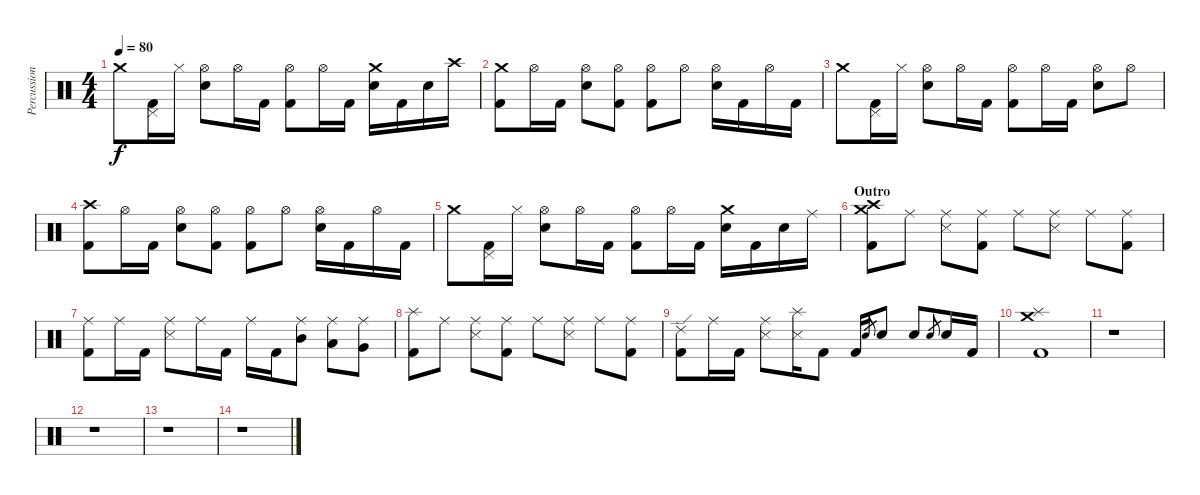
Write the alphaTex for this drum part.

\track ("Percussion" "Percussion") {instrument percussion}
\staff {score}
\articulation defaults
\ts (4 4)
\tempo 80
\clef neutral
\ks c "Crash medium (hit)".8{dy f}
("Pedal Hi-Hat (hit)" "Kick (hit) 2").16 "Hi-Hat (closed)".16 ("Hi-Hat (open)" "Electric Snare (hit)").8 "Hi-Hat (open)".16 "Kick (hit) 2".16 ("Hi-Hat (open)" "Kick (hit) 2").8 "Hi-Hat (open)".16 "Kick (hit) 2".16 ("Crash medium (hit)" "Electric Snare (hit)").16 "Kick (hit) 2".16 "Electric Snare (hit)".16 "Crash high (hit)".16 |
("Crash medium (hit)" "Kick (hit) 2").8 "Hi-Hat (open)".16 "Kick (hit) 2".16 ("Hi-Hat (open)" "Electric Snare (hit)").8 ("Hi-Hat (open)" "Kick (hit) 2").8 ("Hi-Hat (open)" "Kick (hit) 2").8 "Hi-Hat (open)".8 ("Hi-Hat (open)" "Electric Snare (hit)").16 "Kick (hit) 2".16 "Hi-Hat (open)".16 "Kick (hit) 2".16 |
"Crash medium (hit)".8 ("Pedal Hi-Hat (hit)" "Kick (hit) 2").16 "Hi-Hat (closed)".16 ("Hi-Hat (open)" "Electric Snare (hit)").8 "Hi-Hat (open)".16 "Kick (hit) 2".16 ("Hi-Hat (open)" "Kick (hit) 2").8 "Hi-Hat (open)".16 "Kick (hit) 2".16 ("Hi-Hat (open)" "Electric Snare (hit)").8 "Hi-Hat (open)".8 |
("Crash high (hit)" "Kick (hit) 2").8 "Hi-Hat (open)".16 "Kick (hit) 2".16 ("Hi-Hat (open)" "Electric Snare (hit)").8 ("Hi-Hat (open)" "Kick (hit) 2").8 ("Hi-Hat (open)" "Kick (hit) 2").8 "Hi-Hat (open)".8 ("Hi-Hat (open)" "Electric Snare (hit)").16 "Kick (hit) 2".16 "Hi-Hat (open)".16 "Kick (hit) 2".16 |
"Crash medium (hit)".8 ("Pedal Hi-Hat (hit)" "Kick (hit) 2").16 "Hi-Hat (closed)".16 ("Hi-Hat (open)" "Electric Snare (hit)").8 "Hi-Hat (open)".16 "Kick (hit) 2".16 ("Hi-Hat (open)" "Kick (hit) 2").8 "Hi-Hat (open)".16 "Kick (hit) 2".16 ("Crash medium (hit)" "Electric Snare (hit)").16 "Kick (hit) 2".16 "Electric Snare (hit)".16 "Ride (middle)".16 |
\section ("" "Outro")
("Crash medium (hit)" "Crash high (hit)" "Kick (hit) 2").8 "Ride (middle)".8 ("Ride (middle)" "Snare (side stick) 3").8 ("Ride (middle)" "Kick (hit) 2").8 "Ride (middle)".8 ("Ride (middle)" "Snare (side stick) 3").8 "Ride (middle)".8 ("Ride (middle)" "Kick (hit) 2").8 |
("Ride (middle)" "Kick (hit) 2").8 "Ride (middle)".16 "Kick (hit) 2".16 ("Ride (middle)" "Snare (side stick) 3").8 "Ride (middle)".16 "Kick (hit) 2".16 "Ride (middle)".16 "Kick (hit) 2".16 ("Ride (middle)" "Mid Tom (hit)").8 ("Ride (middle)" "Low Tom (hit)").8 ("Ride (middle)" "Very Low Tom (hit)").8 |
("Splash (hit)" "Kick (hit) 2").8 "Ride (middle)".8 ("Ride (middle)" "Snare (side stick) 3").8 ("Ride (middle)" "Kick (hit) 2").8 "Ride (middle)".8 ("Ride (middle)" "Snare (side stick) 3").8 "Ride (middle)".8 ("Ride (middle)" "Kick (hit) 2").8 |
("Ride (edge) 2" "Kick (hit) 2").8 "Ride (middle)".16 "Kick (hit) 2".16 ("Ride (middle)" "Snare (side stick) 3").8 ("Splash (hit)" "Snare (side stick) 3").16 "Kick (hit) 2".8 "Kick (hit) 2".16 "Electric Snare (hit)".8{gr} "Electric Snare (hit)".8 "Electric Snare (hit)".8 "Electric Snare (hit)".8{gr} "Electric Snare (hit)".16 "Kick (hit) 2".16 |
("Crash medium (hit)" "Splash (hit)" "Kick (hit) 2").1 |
r.1 |
r.1 |
r.1 |
r.1
